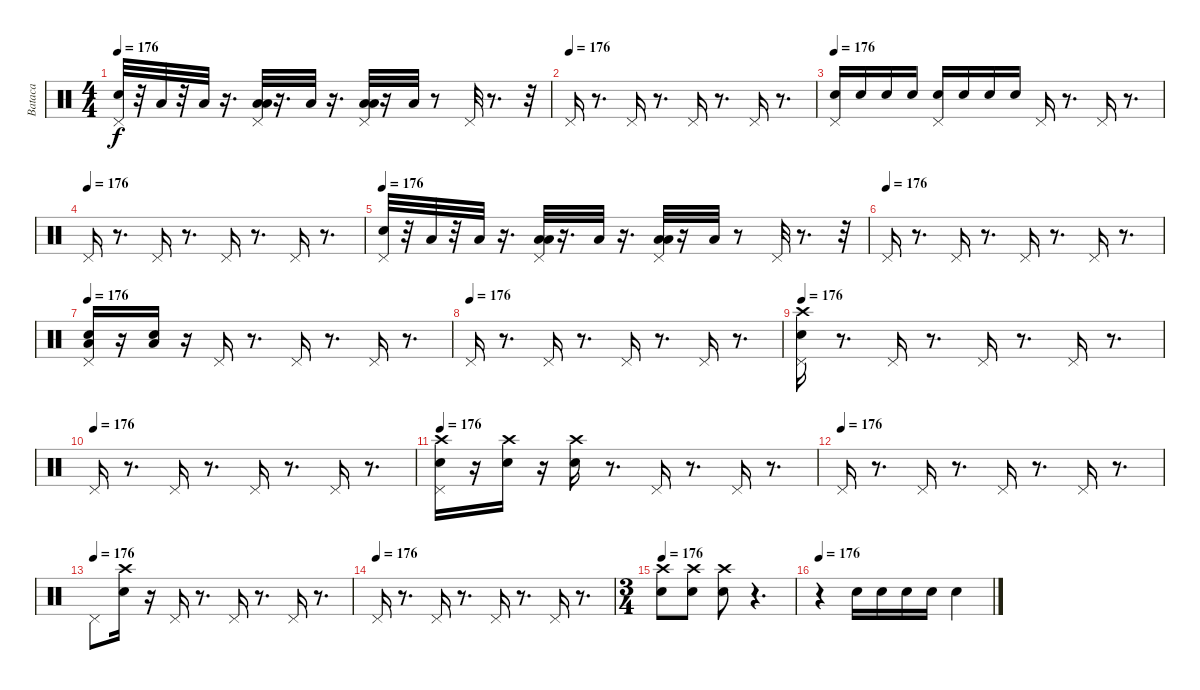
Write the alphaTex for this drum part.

\track ("Bataca" "Bataca") {instrument percussion}
\staff {score}
\articulation defaults
\ts (4 4)
\tempo 176
\clef neutral
\ks c
("Pedal Hi-Hat (hit)" "Snare (hit) 2").32{dy f} r.32 "Low Floor Tom (hit)".32 r.32 "Low Floor Tom (hit)".32 r.16{d} ("Low Floor Tom (hit)" "Pedal Hi-Hat (hit)" "Low Floor Tom (hit)").32 r.16{d} "Low Floor Tom (hit)".32 r.16{d} ("Low Floor Tom (hit)" "Pedal Hi-Hat (hit)" "Low Floor Tom (hit)").32 r.16 "Low Floor Tom (hit)".32 r.8 "Pedal Hi-Hat (hit)".32 r.8{d} r.32 |
\tempo (176)
"Pedal Hi-Hat (hit)".16 r.8{d} "Pedal Hi-Hat (hit)".16 r.8{d} "Pedal Hi-Hat (hit)".16 r.8{d} "Pedal Hi-Hat (hit)".16 r.8{d} |
\tempo 176
("Pedal Hi-Hat (hit)" "Snare (hit) 2").16 "Snare (hit) 2".16 "Snare (hit) 2".16 "Snare (hit) 2".16 ("Pedal Hi-Hat (hit)" "Snare (hit) 2").16 "Snare (hit) 2".16 "Snare (hit) 2".16 "Snare (hit) 2".16 "Pedal Hi-Hat (hit)".16 r.8{d} "Pedal Hi-Hat (hit)".16 r.8{d} |
\tempo (176)
"Pedal Hi-Hat (hit)".16 r.8{d} "Pedal Hi-Hat (hit)".16 r.8{d} "Pedal Hi-Hat (hit)".16 r.8{d} "Pedal Hi-Hat (hit)".16 r.8{d} |
\tempo 176
("Pedal Hi-Hat (hit)" "Snare (hit) 2").32 r.32 "Low Floor Tom (hit)".32 r.32 "Low Floor Tom (hit)".32 r.16{d} ("Low Floor Tom (hit)" "Pedal Hi-Hat (hit)" "Low Floor Tom (hit)").32 r.16{d} "Low Floor Tom (hit)".32 r.16{d} ("Low Floor Tom (hit)" "Pedal Hi-Hat (hit)" "Low Floor Tom (hit)").32 r.16 "Low Floor Tom (hit)".32 r.8 "Pedal Hi-Hat (hit)".32 r.8{d} r.32 |
\tempo (176)
"Pedal Hi-Hat (hit)".16 r.8{d} "Pedal Hi-Hat (hit)".16 r.8{d} "Pedal Hi-Hat (hit)".16 r.8{d} "Pedal Hi-Hat (hit)".16 r.8{d} |
\tempo 176
("Pedal Hi-Hat (hit)" "Snare (hit) 2" "Low Floor Tom (hit)").16 r.16 ("Snare (hit) 2" "Low Floor Tom (hit)").16 r.16 "Pedal Hi-Hat (hit)".16 r.8{d} "Pedal Hi-Hat (hit)".16 r.8{d} "Pedal Hi-Hat (hit)".16 r.8{d} |
\tempo (176)
"Pedal Hi-Hat (hit)".16 r.8{d} "Pedal Hi-Hat (hit)".16 r.8{d} "Pedal Hi-Hat (hit)".16 r.8{d} "Pedal Hi-Hat (hit)".16 r.8{d} |
\tempo 176
("Crash high (hit)" "Pedal Hi-Hat (hit)" "Snare (hit) 2").16 r.8{d} "Pedal Hi-Hat (hit)".16 r.8{d} "Pedal Hi-Hat (hit)".16 r.8{d} "Pedal Hi-Hat (hit)".16 r.8{d} |
\tempo (176)
"Pedal Hi-Hat (hit)".16 r.8{d} "Pedal Hi-Hat (hit)".16 r.8{d} "Pedal Hi-Hat (hit)".16 r.8{d} "Pedal Hi-Hat (hit)".16 r.8{d} |
\tempo 176
("Crash high (hit)" "Pedal Hi-Hat (hit)" "Snare (hit) 2").16 r.16 ("Crash high (hit)" "Snare (hit) 2").16 r.16 ("Crash high (hit)" "Snare (hit) 2").16 r.8{d} "Pedal Hi-Hat (hit)".16 r.8{d} "Pedal Hi-Hat (hit)".16 r.8{d} |
\tempo (176)
"Pedal Hi-Hat (hit)".16 r.8{d} "Pedal Hi-Hat (hit)".16 r.8{d} "Pedal Hi-Hat (hit)".16 r.8{d} "Pedal Hi-Hat (hit)".16 r.8{d} |
\tempo (176)
"Pedal Hi-Hat (hit)".8 ("Crash high (hit)" "Snare (hit) 2").16 r.16 "Pedal Hi-Hat (hit)".16 r.8{d} "Pedal Hi-Hat (hit)".16 r.8{d} "Pedal Hi-Hat (hit)".16 r.8{d} |
\tempo (176)
"Pedal Hi-Hat (hit)".16 r.8{d} "Pedal Hi-Hat (hit)".16 r.8{d} "Pedal Hi-Hat (hit)".16 r.8{d} "Pedal Hi-Hat (hit)".16 r.8{d} |
\ts (3 4)
\tempo 176
("Crash high (hit)" "Snare (hit) 2").8 ("Crash high (hit)" "Snare (hit) 2").8 ("Crash high (hit)" "Snare (hit) 2").8 r.4{d} |
\tempo 176
r.4 "Snare (hit) 2".16 "Snare (hit) 2".16 "Snare (hit) 2".16 "Snare (hit) 2".16 "Snare (hit) 2".4
